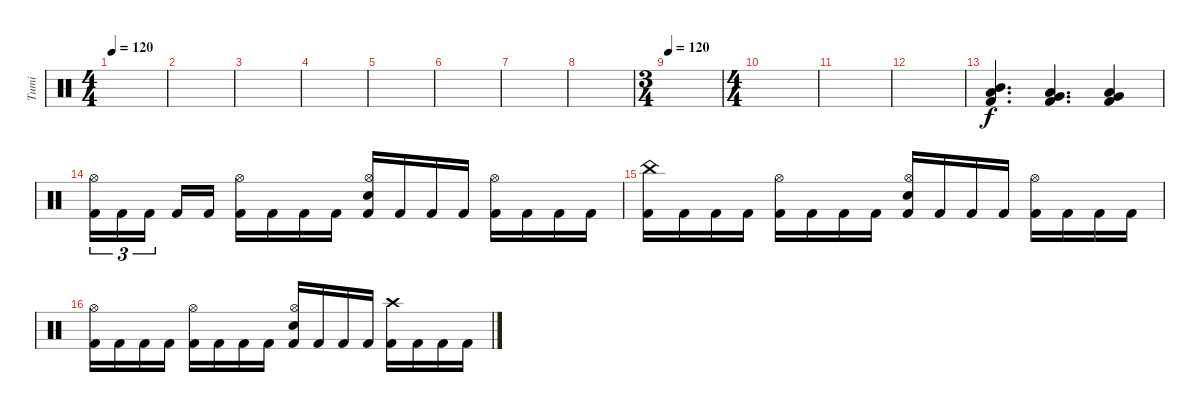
\track ("Tumi" "Tumi") {instrument percussion}
\staff {score}
\articulation defaults
\ts (4 4)
\tempo 120
\clef neutral
\ks c
|
|
|
|
|
|
|
|
\ts (3 4)
\tempo 120
|
\ts (4 4)
|
|
|
("Mid Tom (hit)" "Low Tom (hit)" "Kick (hit) 2").4{d} ("Low Tom (hit)" "Very Low Tom (hit)" "Kick (hit) 2").4{d} ("Very Low Tom (hit)" "Low Tom (hit)" "Kick (hit) 2").4 |
("Hi-Hat (open)" "Kick (hit) 2").16{tu (3 2)} "Kick (hit) 2".16{tu (3 2)} "Kick (hit) 2".16{tu (3 2) beam splitsecondary} "Kick (hit) 2".16 "Kick (hit) 2".16 ("Hi-Hat (open)" "Kick (hit) 2").16 "Kick (hit) 2".16 "Kick (hit) 2".16 "Kick (hit) 2".16 ("Hi-Hat (open)" "Electric Snare (hit)" "Kick (hit) 2").16 "Kick (hit) 2".16 "Kick (hit) 2".16 "Kick (hit) 2".16 ("Hi-Hat (open)" "Kick (hit) 2").16 "Kick (hit) 2".16 "Kick (hit) 2".16 "Kick (hit) 2".16 |
("China (hit)" "Kick (hit) 2").16 "Kick (hit) 2".16 "Kick (hit) 2".16 "Kick (hit) 2".16 ("Hi-Hat (open)" "Kick (hit) 2").16 "Kick (hit) 2".16 "Kick (hit) 2".16 "Kick (hit) 2".16 ("Hi-Hat (open)" "Electric Snare (hit)" "Kick (hit) 2").16 "Kick (hit) 2".16 "Kick (hit) 2".16 "Kick (hit) 2".16 ("Hi-Hat (open)" "Kick (hit) 2").16 "Kick (hit) 2".16 "Kick (hit) 2".16 "Kick (hit) 2".16 |
("Hi-Hat (open)" "Kick (hit) 2").16 "Kick (hit) 2".16 "Kick (hit) 2".16 "Kick (hit) 2".16 ("Hi-Hat (open)" "Kick (hit) 2").16 "Kick (hit) 2".16 "Kick (hit) 2".16 "Kick (hit) 2".16 ("Hi-Hat (open)" "Electric Snare (hit)" "Kick (hit) 2").16 "Kick (hit) 2".16 "Kick (hit) 2".16 "Kick (hit) 2".16 ("Crash high (hit)" "Kick (hit) 2").16 "Kick (hit) 2".16 "Kick (hit) 2".16 "Kick (hit) 2".16
